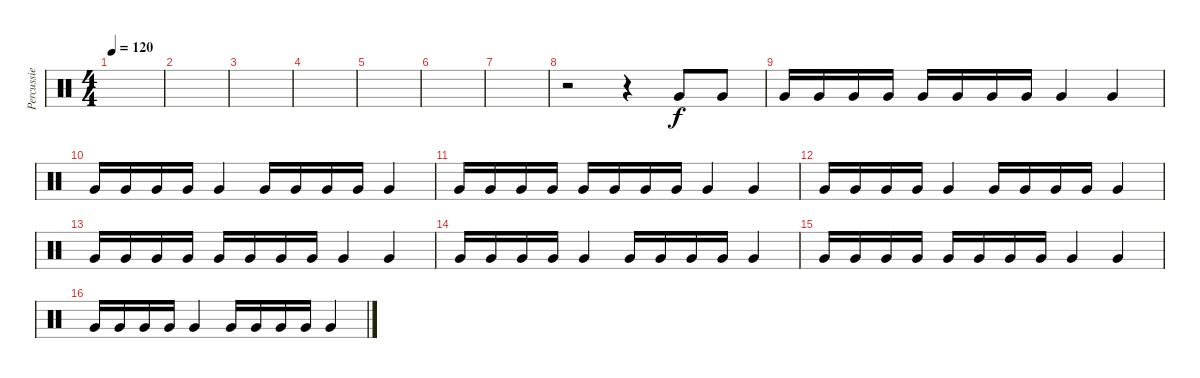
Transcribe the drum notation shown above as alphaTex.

\track ("Percussie" "Percussie") {instrument percussion}
\staff {score}
\articulation defaults
\ts (4 4)
\tempo 120
\clef neutral
\ks c
|
|
|
|
|
|
|
r.2 r.4 "Very Low Tom (hit)".8 "Very Low Tom (hit)".8 |
"Very Low Tom (hit)".16{dy f} "Very Low Tom (hit)".16 "Very Low Tom (hit)".16 "Very Low Tom (hit)".16 "Very Low Tom (hit)".16 "Very Low Tom (hit)".16 "Very Low Tom (hit)".16 "Very Low Tom (hit)".16 "Very Low Tom (hit)".4 "Very Low Tom (hit)".4 |
"Very Low Tom (hit)".16 "Very Low Tom (hit)".16 "Very Low Tom (hit)".16 "Very Low Tom (hit)".16 "Very Low Tom (hit)".4 "Very Low Tom (hit)".16 "Very Low Tom (hit)".16 "Very Low Tom (hit)".16 "Very Low Tom (hit)".16 "Very Low Tom (hit)".4 |
"Very Low Tom (hit)".16 "Very Low Tom (hit)".16 "Very Low Tom (hit)".16 "Very Low Tom (hit)".16 "Very Low Tom (hit)".16 "Very Low Tom (hit)".16 "Very Low Tom (hit)".16 "Very Low Tom (hit)".16 "Very Low Tom (hit)".4 "Very Low Tom (hit)".4 |
"Very Low Tom (hit)".16 "Very Low Tom (hit)".16 "Very Low Tom (hit)".16 "Very Low Tom (hit)".16 "Very Low Tom (hit)".4 "Very Low Tom (hit)".16 "Very Low Tom (hit)".16 "Very Low Tom (hit)".16 "Very Low Tom (hit)".16 "Very Low Tom (hit)".4 |
"Very Low Tom (hit)".16 "Very Low Tom (hit)".16 "Very Low Tom (hit)".16 "Very Low Tom (hit)".16 "Very Low Tom (hit)".16 "Very Low Tom (hit)".16 "Very Low Tom (hit)".16 "Very Low Tom (hit)".16 "Very Low Tom (hit)".4 "Very Low Tom (hit)".4 |
"Very Low Tom (hit)".16 "Very Low Tom (hit)".16 "Very Low Tom (hit)".16 "Very Low Tom (hit)".16 "Very Low Tom (hit)".4 "Very Low Tom (hit)".16 "Very Low Tom (hit)".16 "Very Low Tom (hit)".16 "Very Low Tom (hit)".16 "Very Low Tom (hit)".4 |
"Very Low Tom (hit)".16 "Very Low Tom (hit)".16 "Very Low Tom (hit)".16 "Very Low Tom (hit)".16 "Very Low Tom (hit)".16 "Very Low Tom (hit)".16 "Very Low Tom (hit)".16 "Very Low Tom (hit)".16 "Very Low Tom (hit)".4 "Very Low Tom (hit)".4 |
"Very Low Tom (hit)".16 "Very Low Tom (hit)".16 "Very Low Tom (hit)".16 "Very Low Tom (hit)".16 "Very Low Tom (hit)".4 "Very Low Tom (hit)".16 "Very Low Tom (hit)".16 "Very Low Tom (hit)".16 "Very Low Tom (hit)".16 "Very Low Tom (hit)".4
